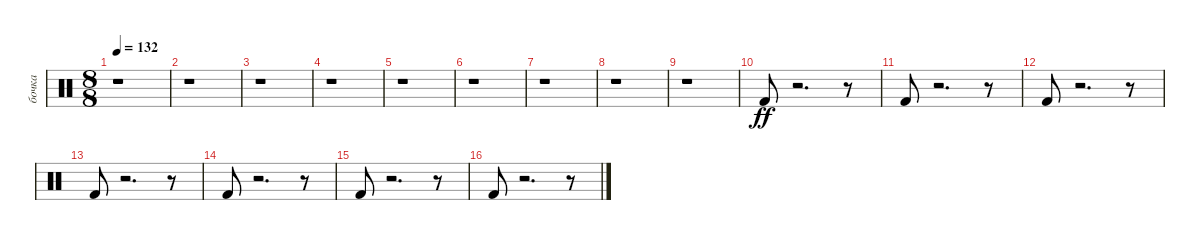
\track ("бочка" "бочка") {instrument percussion}
\staff {score}
\articulation defaults
\ts (8 8)
\tempo 132
\clef neutral
\ks c
r.1{dy ff} |
r.1 |
r.1 |
r.1 |
r.1 |
r.1 |
r.1 |
r.1 |
r.1 |
"Kick (hit) 2".8 r.2{d} r.8 |
"Kick (hit) 2".8 r.2{d} r.8 |
"Kick (hit) 2".8 r.2{d} r.8 |
"Kick (hit) 2".8 r.2{d} r.8 |
"Kick (hit) 2".8 r.2{d} r.8 |
"Kick (hit) 2".8 r.2{d} r.8 |
"Kick (hit) 2".8 r.2{d} r.8
